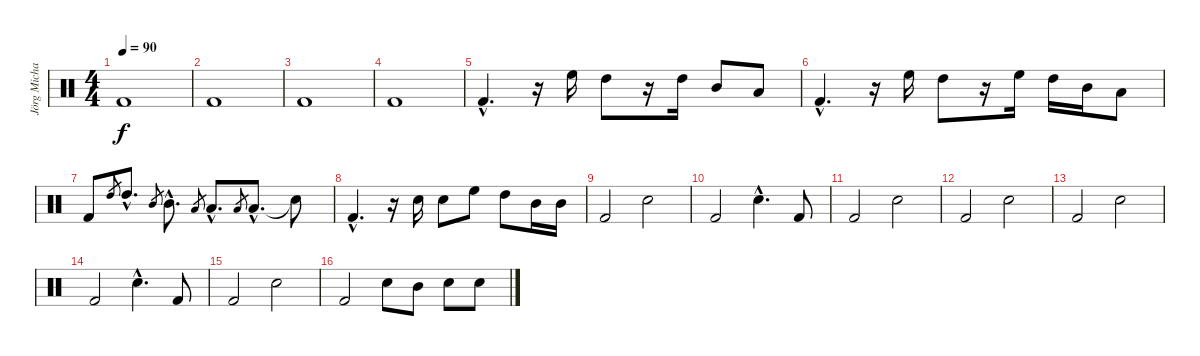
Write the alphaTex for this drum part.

\track ("Jörg Michael Drums" "Jörg Micha") {instrument percussion}
\staff {score}
\articulation defaults
\ts (4 4)
\tempo 90
\clef neutral
\ks c "Kick (hit) 2".1{dy f}
|
"Kick (hit) 2".1 |
"Kick (hit) 2".1 |
"Kick (hit) 2".1 |
"Kick (hit) 2"{hac}.4{d} r.16 "High Floor Tom (hit)".16 "High Tom (hit)".8 r.16 "High Tom (hit)".16 "Mid Tom (hit)".8 "Low Tom (hit)".8 |
"Kick (hit) 2"{hac}.4{d} r.16 "High Floor Tom (hit)".16 "High Tom (hit)".8 r.16 "High Floor Tom (hit)".16 "High Tom (hit)".16 "Mid Tom (hit)".16 "Low Tom (hit)".8 |
"Kick (hit) 2".8 "High Tom (hit)".8{gr} "High Tom (hit)"{hac}.8{d} "Mid Tom (hit)".8{gr} "Mid Tom (hit)"{hac}.8{d} "Low Tom (hit)".8{gr} "Low Tom (hit)"{hac}.8{d} "Low Floor Tom (hit)".8{gr} "Low Floor Tom (hit)"{hac}.8{d} "Snare (hit)"{t}.8 |
"Kick (hit) 2"{hac}.4{d} r.16 "Electric Snare (hit)".16 "Electric Snare (hit)".8 "High Floor Tom (hit)".8 "High Tom (hit)".8 "Mid Tom (hit)".16 "Mid Tom (hit)".16 |
"Kick (hit) 2".2 "Electric Snare (hit)".2 |
"Kick (hit) 2".2 "Electric Snare (hit)"{hac}.4{d} "Kick (hit) 2".8 |
"Kick (hit) 2".2 "Electric Snare (hit)".2 |
"Kick (hit) 2".2 "Electric Snare (hit)".2 |
"Kick (hit) 2".2 "Electric Snare (hit)".2 |
"Kick (hit) 2".2 "Electric Snare (hit)"{hac}.4{d} "Kick (hit) 2".8 |
"Kick (hit) 2".2 "Electric Snare (hit)".2 |
"Kick (hit) 2".2 "Electric Snare (hit)".8 "Mid Tom (hit)".8 "Electric Snare (hit)".8 "Electric Snare (hit)".8
